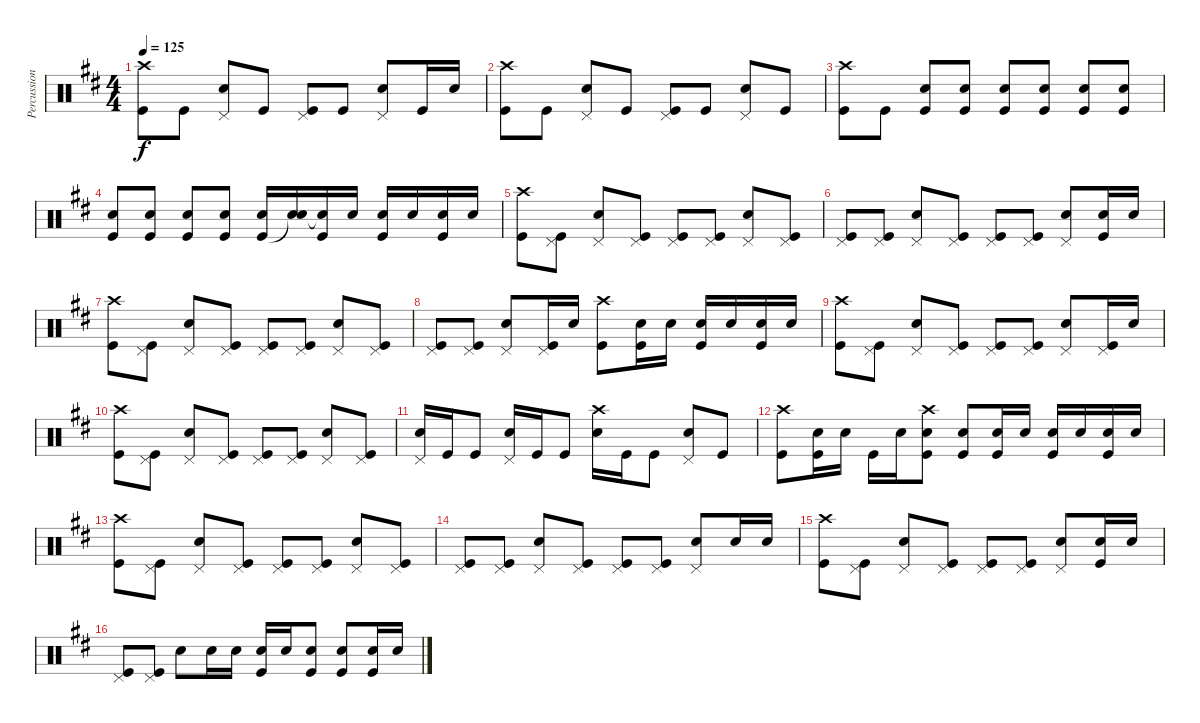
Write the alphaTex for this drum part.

\track ("Percussion" "Percussion") {instrument percussion}
\staff {score}
\articulation defaults
\ts (4 4)
\tempo 125
\clef neutral
\ks d
("Crash high (hit)" "Kick (hit)").8{dy f} "Kick (hit)".8 ("Pedal Hi-Hat (hit)" "Snare (hit) 2").8 "Kick (hit)".8 ("Pedal Hi-Hat (hit)" "Kick (hit)").8 "Kick (hit)".8 ("Pedal Hi-Hat (hit)" "Snare (hit) 2").8 "Kick (hit)".16 "Snare (hit) 2".16 |
("Crash high (hit)" "Kick (hit)").8 "Kick (hit)".8 ("Pedal Hi-Hat (hit)" "Snare (hit) 2").8 "Kick (hit)".8 ("Pedal Hi-Hat (hit)" "Kick (hit)").8 "Kick (hit)".8 ("Pedal Hi-Hat (hit)" "Snare (hit) 2").8 "Kick (hit)".8 |
("Crash high (hit)" "Kick (hit)").8 "Kick (hit)".8 ("Snare (hit) 2" "Kick (hit)").8 ("Snare (hit) 2" "Kick (hit)").8 ("Snare (hit) 2" "Kick (hit)").8 ("Snare (hit) 2" "Kick (hit)").8 ("Snare (hit) 2" "Kick (hit)").8 ("Snare (hit) 2" "Kick (hit)").8 |
("Snare (hit) 2" "Kick (hit)").8 ("Snare (hit) 2" "Kick (hit)").8 ("Snare (hit) 2" "Kick (hit)").8 ("Snare (hit) 2" "Kick (hit)").8 ("Snare (hit) 2" "Kick (hit)").16 ("Snare (hit) 2" "Snare (hit)"{t}).16 ("Snare (hit) 2"{t} "Kick (hit)").16 "Snare (hit) 2".16 ("Snare (hit) 2" "Kick (hit)").16 "Snare (hit) 2".16 ("Snare (hit) 2" "Kick (hit)").16 "Snare (hit) 2".16 |
("Crash high (hit)" "Kick (hit)").8 ("Pedal Hi-Hat (hit)" "Kick (hit)").8 ("Pedal Hi-Hat (hit)" "Snare (hit) 2").8 ("Pedal Hi-Hat (hit)" "Kick (hit)").8 ("Pedal Hi-Hat (hit)" "Kick (hit)").8 ("Pedal Hi-Hat (hit)" "Kick (hit)").8 ("Pedal Hi-Hat (hit)" "Snare (hit) 2").8 ("Pedal Hi-Hat (hit)" "Kick (hit)").8 |
("Pedal Hi-Hat (hit)" "Kick (hit)").8 ("Pedal Hi-Hat (hit)" "Kick (hit)").8 ("Pedal Hi-Hat (hit)" "Snare (hit) 2").8 ("Pedal Hi-Hat (hit)" "Kick (hit)").8 ("Pedal Hi-Hat (hit)" "Kick (hit)").8 ("Pedal Hi-Hat (hit)" "Kick (hit)").8 ("Pedal Hi-Hat (hit)" "Snare (hit) 2").8 ("Snare (hit) 2" "Kick (hit)").16 "Snare (hit) 2".16 |
("Crash high (hit)" "Kick (hit)").8 ("Pedal Hi-Hat (hit)" "Kick (hit)").8 ("Pedal Hi-Hat (hit)" "Snare (hit) 2").8 ("Pedal Hi-Hat (hit)" "Kick (hit)").8 ("Pedal Hi-Hat (hit)" "Kick (hit)").8 ("Pedal Hi-Hat (hit)" "Kick (hit)").8 ("Pedal Hi-Hat (hit)" "Snare (hit) 2").8 ("Pedal Hi-Hat (hit)" "Kick (hit)").8 |
("Pedal Hi-Hat (hit)" "Kick (hit)").8 ("Pedal Hi-Hat (hit)" "Kick (hit)").8 ("Pedal Hi-Hat (hit)" "Snare (hit) 2").8 ("Pedal Hi-Hat (hit)" "Kick (hit)").16 "Snare (hit) 2".16 ("Crash high (hit)" "Kick (hit)").8 ("Snare (hit) 2" "Kick (hit)").16 "Snare (hit) 2".16 ("Snare (hit) 2" "Kick (hit)").16 "Snare (hit) 2".16 ("Snare (hit) 2" "Kick (hit)").16 "Snare (hit) 2".16 |
("Crash high (hit)" "Kick (hit)").8 ("Pedal Hi-Hat (hit)" "Kick (hit)").8 ("Pedal Hi-Hat (hit)" "Snare (hit) 2").8 ("Pedal Hi-Hat (hit)" "Kick (hit)").8 ("Pedal Hi-Hat (hit)" "Kick (hit)").8 ("Pedal Hi-Hat (hit)" "Kick (hit)").8 ("Pedal Hi-Hat (hit)" "Snare (hit) 2").8 ("Pedal Hi-Hat (hit)" "Kick (hit)").16 "Snare (hit) 2".16 |
("Crash high (hit)" "Kick (hit)").8 ("Pedal Hi-Hat (hit)" "Kick (hit)").8 ("Pedal Hi-Hat (hit)" "Snare (hit) 2").8 ("Pedal Hi-Hat (hit)" "Kick (hit)").8 ("Pedal Hi-Hat (hit)" "Kick (hit)").8 ("Pedal Hi-Hat (hit)" "Kick (hit)").8 ("Pedal Hi-Hat (hit)" "Snare (hit) 2").8 ("Pedal Hi-Hat (hit)" "Kick (hit)").8 |
("Pedal Hi-Hat (hit)" "Snare (hit) 2").16 "Kick (hit)".16 "Kick (hit)".8 ("Pedal Hi-Hat (hit)" "Snare (hit) 2").16 "Kick (hit)".16 "Kick (hit)".8 ("Crash high (hit)" "Snare (hit) 2").16 "Kick (hit)".16 "Kick (hit)".8 ("Pedal Hi-Hat (hit)" "Snare (hit) 2").8 "Kick (hit)".8 |
("Crash high (hit)" "Kick (hit)").8 ("Snare (hit) 2" "Kick (hit)").16 "Snare (hit) 2".16 "Kick (hit)".16 "Snare (hit) 2".16 ("Crash high (hit)" "Snare (hit) 2" "Kick (hit)").8 ("Snare (hit) 2" "Kick (hit)").8 ("Snare (hit) 2" "Kick (hit)").16 "Snare (hit) 2".16 ("Snare (hit) 2" "Kick (hit)").16 "Snare (hit) 2".16 ("Snare (hit) 2" "Kick (hit)").16 "Snare (hit) 2".16 |
("Crash high (hit)" "Kick (hit)").8 ("Pedal Hi-Hat (hit)" "Kick (hit)").8 ("Pedal Hi-Hat (hit)" "Snare (hit) 2").8 ("Pedal Hi-Hat (hit)" "Kick (hit)").8 ("Pedal Hi-Hat (hit)" "Kick (hit)").8 ("Pedal Hi-Hat (hit)" "Kick (hit)").8 ("Pedal Hi-Hat (hit)" "Snare (hit) 2").8 ("Pedal Hi-Hat (hit)" "Kick (hit)").8 |
("Pedal Hi-Hat (hit)" "Kick (hit)").8 ("Pedal Hi-Hat (hit)" "Kick (hit)").8 ("Pedal Hi-Hat (hit)" "Snare (hit) 2").8 ("Pedal Hi-Hat (hit)" "Kick (hit)").8 ("Pedal Hi-Hat (hit)" "Kick (hit)").8 ("Pedal Hi-Hat (hit)" "Kick (hit)").8 ("Pedal Hi-Hat (hit)" "Snare (hit) 2").8 "Snare (hit) 2".16 "Snare (hit) 2".16 |
("Crash high (hit)" "Kick (hit)").8 ("Pedal Hi-Hat (hit)" "Kick (hit)").8 ("Pedal Hi-Hat (hit)" "Snare (hit) 2").8 ("Pedal Hi-Hat (hit)" "Kick (hit)").8 ("Pedal Hi-Hat (hit)" "Kick (hit)").8 ("Pedal Hi-Hat (hit)" "Kick (hit)").8 ("Pedal Hi-Hat (hit)" "Snare (hit) 2").8 ("Snare (hit) 2" "Kick (hit)").16 "Snare (hit) 2".16 |
("Pedal Hi-Hat (hit)" "Kick (hit)").8 ("Pedal Hi-Hat (hit)" "Kick (hit)").8 "Snare (hit) 2".8 "Snare (hit) 2".16 "Snare (hit) 2".16 ("Snare (hit) 2" "Kick (hit)").16 "Snare (hit) 2".16 ("Snare (hit) 2" "Kick (hit)").8 ("Snare (hit) 2" "Kick (hit)").8 ("Snare (hit) 2" "Kick (hit)").16 "Snare (hit) 2".16
